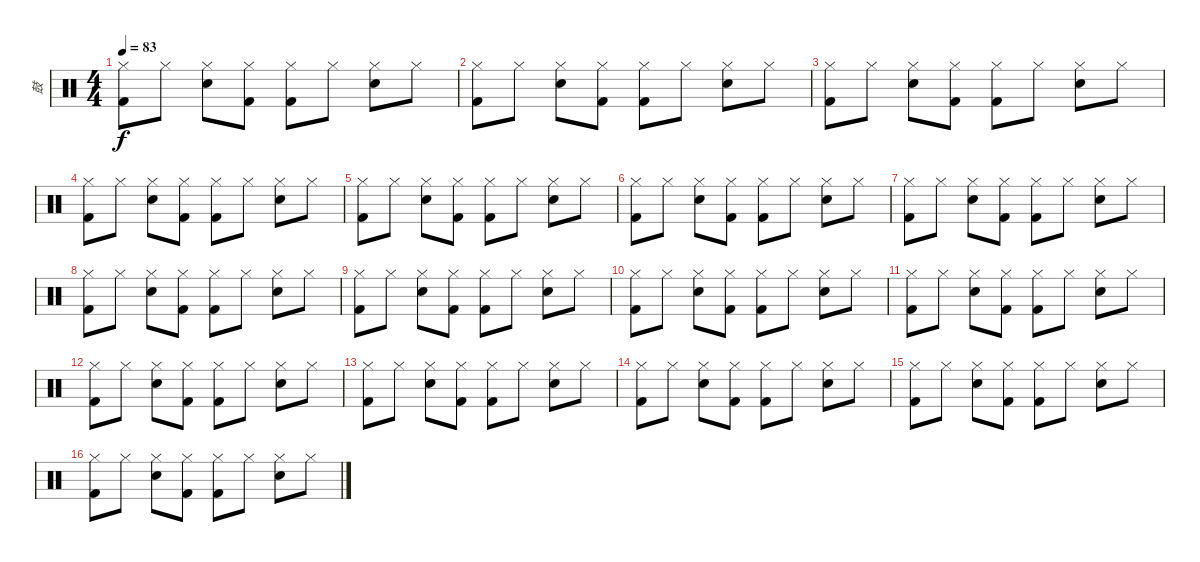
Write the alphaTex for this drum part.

\track ("鼓" "鼓") {instrument percussion}
\staff {score}
\articulation defaults
\ts (4 4)
\tempo 83
\clef neutral
\ks c
("Kick (hit) 2" "Hi-Hat (closed)").8{dy f} "Hi-Hat (closed)".8 ("Hi-Hat (closed)" "Snare (hit) 2").8 ("Hi-Hat (closed)" "Kick (hit) 2").8 ("Kick (hit) 2" "Hi-Hat (closed)").8 "Hi-Hat (closed)".8 ("Hi-Hat (closed)" "Snare (hit) 2").8 "Hi-Hat (closed)".8 |
("Kick (hit) 2" "Hi-Hat (closed)").8 "Hi-Hat (closed)".8 ("Hi-Hat (closed)" "Snare (hit) 2").8 ("Hi-Hat (closed)" "Kick (hit) 2").8 ("Kick (hit) 2" "Hi-Hat (closed)").8 "Hi-Hat (closed)".8 ("Hi-Hat (closed)" "Snare (hit) 2").8 "Hi-Hat (closed)".8 |
("Kick (hit) 2" "Hi-Hat (closed)").8 "Hi-Hat (closed)".8 ("Hi-Hat (closed)" "Snare (hit) 2").8 ("Hi-Hat (closed)" "Kick (hit) 2").8 ("Kick (hit) 2" "Hi-Hat (closed)").8 "Hi-Hat (closed)".8 ("Hi-Hat (closed)" "Snare (hit) 2").8 "Hi-Hat (closed)".8 |
("Kick (hit) 2" "Hi-Hat (closed)").8 "Hi-Hat (closed)".8 ("Hi-Hat (closed)" "Snare (hit) 2").8 ("Hi-Hat (closed)" "Kick (hit) 2").8 ("Kick (hit) 2" "Hi-Hat (closed)").8 "Hi-Hat (closed)".8 ("Hi-Hat (closed)" "Snare (hit) 2").8 "Hi-Hat (closed)".8 |
("Kick (hit) 2" "Hi-Hat (closed)").8 "Hi-Hat (closed)".8 ("Hi-Hat (closed)" "Snare (hit) 2").8 ("Hi-Hat (closed)" "Kick (hit) 2").8 ("Kick (hit) 2" "Hi-Hat (closed)").8 "Hi-Hat (closed)".8 ("Hi-Hat (closed)" "Snare (hit) 2").8 "Hi-Hat (closed)".8 |
("Kick (hit) 2" "Hi-Hat (closed)").8 "Hi-Hat (closed)".8 ("Hi-Hat (closed)" "Snare (hit) 2").8 ("Hi-Hat (closed)" "Kick (hit) 2").8 ("Kick (hit) 2" "Hi-Hat (closed)").8 "Hi-Hat (closed)".8 ("Hi-Hat (closed)" "Snare (hit) 2").8 "Hi-Hat (closed)".8 |
("Hi-Hat (closed)" "Kick (hit) 2").8 "Hi-Hat (closed)".8 ("Snare (hit) 2" "Hi-Hat (closed)").8 ("Hi-Hat (closed)" "Kick (hit) 2").8 ("Hi-Hat (closed)" "Kick (hit) 2").8 "Hi-Hat (closed)".8 ("Snare (hit) 2" "Hi-Hat (closed)").8 "Hi-Hat (closed)".8 |
("Hi-Hat (closed)" "Kick (hit) 2").8 "Hi-Hat (closed)".8 ("Snare (hit) 2" "Hi-Hat (closed)").8 ("Hi-Hat (closed)" "Kick (hit) 2").8 ("Hi-Hat (closed)" "Kick (hit) 2").8 "Hi-Hat (closed)".8 ("Snare (hit) 2" "Hi-Hat (closed)").8 "Hi-Hat (closed)".8 |
("Hi-Hat (closed)" "Kick (hit) 2").8 "Hi-Hat (closed)".8 ("Snare (hit) 2" "Hi-Hat (closed)").8 ("Hi-Hat (closed)" "Kick (hit) 2").8 ("Hi-Hat (closed)" "Kick (hit) 2").8 "Hi-Hat (closed)".8 ("Snare (hit) 2" "Hi-Hat (closed)").8 "Hi-Hat (closed)".8 |
("Hi-Hat (closed)" "Kick (hit) 2").8 "Hi-Hat (closed)".8 ("Snare (hit) 2" "Hi-Hat (closed)").8 ("Hi-Hat (closed)" "Kick (hit) 2").8 ("Hi-Hat (closed)" "Kick (hit) 2").8 "Hi-Hat (closed)".8 ("Snare (hit) 2" "Hi-Hat (closed)").8 "Hi-Hat (closed)".8 |
("Hi-Hat (closed)" "Kick (hit) 2").8 "Hi-Hat (closed)".8 ("Snare (hit) 2" "Hi-Hat (closed)").8 ("Hi-Hat (closed)" "Kick (hit) 2").8 ("Hi-Hat (closed)" "Kick (hit) 2").8 "Hi-Hat (closed)".8 ("Snare (hit) 2" "Hi-Hat (closed)").8 "Hi-Hat (closed)".8 |
("Hi-Hat (closed)" "Kick (hit) 2").8 "Hi-Hat (closed)".8 ("Snare (hit) 2" "Hi-Hat (closed)").8 ("Hi-Hat (closed)" "Kick (hit) 2").8 ("Hi-Hat (closed)" "Kick (hit) 2").8 "Hi-Hat (closed)".8 ("Snare (hit) 2" "Hi-Hat (closed)").8 "Hi-Hat (closed)".8 |
("Hi-Hat (closed)" "Kick (hit) 2").8 "Hi-Hat (closed)".8 ("Snare (hit) 2" "Hi-Hat (closed)").8 ("Hi-Hat (closed)" "Kick (hit) 2").8 ("Hi-Hat (closed)" "Kick (hit) 2").8 "Hi-Hat (closed)".8 ("Snare (hit) 2" "Hi-Hat (closed)").8 "Hi-Hat (closed)".8 |
("Hi-Hat (closed)" "Kick (hit) 2").8 "Hi-Hat (closed)".8 ("Snare (hit) 2" "Hi-Hat (closed)").8 ("Hi-Hat (closed)" "Kick (hit) 2").8 ("Hi-Hat (closed)" "Kick (hit) 2").8 "Hi-Hat (closed)".8 ("Snare (hit) 2" "Hi-Hat (closed)").8 "Hi-Hat (closed)".8 |
("Hi-Hat (closed)" "Kick (hit) 2").8 "Hi-Hat (closed)".8 ("Snare (hit) 2" "Hi-Hat (closed)").8 ("Hi-Hat (closed)" "Kick (hit) 2").8 ("Hi-Hat (closed)" "Kick (hit) 2").8 "Hi-Hat (closed)".8 ("Snare (hit) 2" "Hi-Hat (closed)").8 "Hi-Hat (closed)".8 |
("Hi-Hat (closed)" "Kick (hit) 2").8 "Hi-Hat (closed)".8 ("Snare (hit) 2" "Hi-Hat (closed)").8 ("Hi-Hat (closed)" "Kick (hit) 2").8 ("Hi-Hat (closed)" "Kick (hit) 2").8 "Hi-Hat (closed)".8 ("Snare (hit) 2" "Hi-Hat (closed)").8 "Hi-Hat (closed)".8
